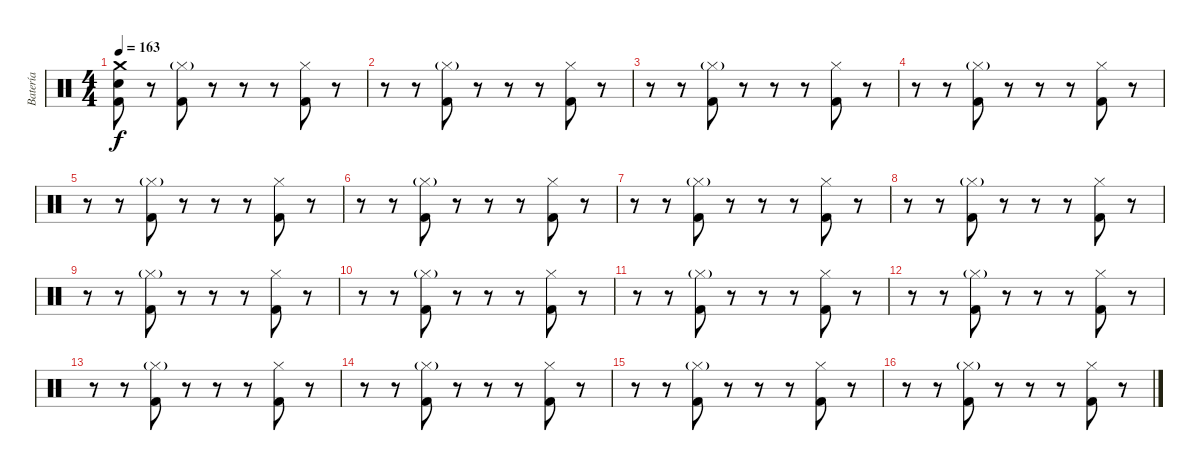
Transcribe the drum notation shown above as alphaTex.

\track ("Batería" "Batería") {instrument percussion}
\staff {score}
\articulation defaults
\ts (4 4)
\tempo 163
\clef neutral
\ks c
("Crash medium (hit)" "Snare (hit) 2" "Kick (hit) 2").8{dy f} r.8 ("Hi-Hat (closed)"{g} "Kick (hit) 2").8 r.8 r.8 r.8 ("Hi-Hat (closed)" "Kick (hit) 2").8 r.8 |
r.8 r.8 ("Hi-Hat (closed)"{g} "Kick (hit) 2").8 r.8 r.8 r.8 ("Hi-Hat (closed)" "Kick (hit) 2").8 r.8 |
r.8 r.8 ("Hi-Hat (closed)"{g} "Kick (hit) 2").8 r.8 r.8 r.8 ("Hi-Hat (closed)" "Kick (hit) 2").8 r.8 |
r.8 r.8 ("Hi-Hat (closed)"{g} "Kick (hit) 2").8 r.8 r.8 r.8 ("Hi-Hat (closed)" "Kick (hit) 2").8 r.8 |
r.8 r.8 ("Hi-Hat (closed)"{g} "Kick (hit) 2").8 r.8 r.8 r.8 ("Hi-Hat (closed)" "Kick (hit) 2").8 r.8 |
r.8 r.8 ("Hi-Hat (closed)"{g} "Kick (hit) 2").8 r.8 r.8 r.8 ("Hi-Hat (closed)" "Kick (hit) 2").8 r.8 |
r.8 r.8 ("Hi-Hat (closed)"{g} "Kick (hit) 2").8 r.8 r.8 r.8 ("Hi-Hat (closed)" "Kick (hit) 2").8 r.8 |
r.8 r.8 ("Hi-Hat (closed)"{g} "Kick (hit) 2").8 r.8 r.8 r.8 ("Hi-Hat (closed)" "Kick (hit) 2").8 r.8 |
r.8 r.8 ("Hi-Hat (closed)"{g} "Kick (hit) 2").8 r.8 r.8 r.8 ("Hi-Hat (closed)" "Kick (hit) 2").8 r.8 |
r.8 r.8 ("Hi-Hat (closed)"{g} "Kick (hit) 2").8 r.8 r.8 r.8 ("Hi-Hat (closed)" "Kick (hit) 2").8 r.8 |
r.8 r.8 ("Hi-Hat (closed)"{g} "Kick (hit) 2").8 r.8 r.8 r.8 ("Hi-Hat (closed)" "Kick (hit) 2").8 r.8 |
r.8 r.8 ("Hi-Hat (closed)"{g} "Kick (hit) 2").8 r.8 r.8 r.8 ("Hi-Hat (closed)" "Kick (hit) 2").8 r.8 |
r.8 r.8 ("Hi-Hat (closed)"{g} "Kick (hit) 2").8 r.8 r.8 r.8 ("Hi-Hat (closed)" "Kick (hit) 2").8 r.8 |
r.8 r.8 ("Hi-Hat (closed)"{g} "Kick (hit) 2").8 r.8 r.8 r.8 ("Hi-Hat (closed)" "Kick (hit) 2").8 r.8 |
r.8 r.8 ("Hi-Hat (closed)"{g} "Kick (hit) 2").8 r.8 r.8 r.8 ("Hi-Hat (closed)" "Kick (hit) 2").8 r.8 |
r.8 r.8 ("Hi-Hat (closed)"{g} "Kick (hit) 2").8 r.8 r.8 r.8 ("Hi-Hat (closed)" "Kick (hit) 2").8 r.8
